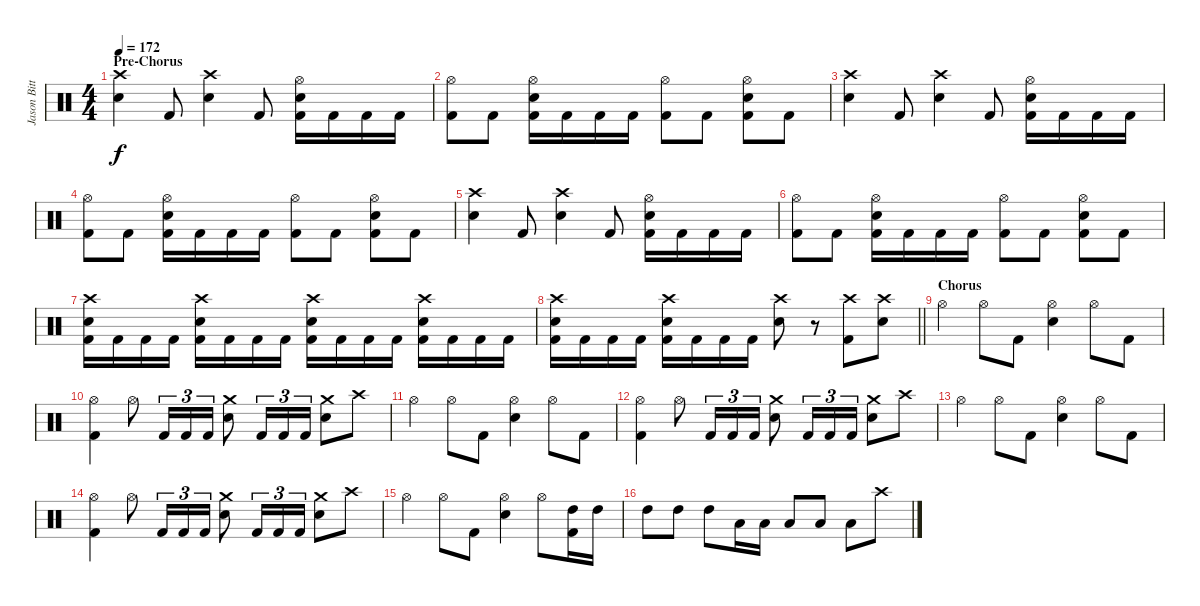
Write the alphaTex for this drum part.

\track ("Jason Bittner" "Jason Bitt") {instrument percussion}
\staff {score}
\articulation defaults
\ts (4 4)
\section ("" "Pre-Chorus")
\tempo 172
\clef neutral
\ks c
("Crash high (hit)" "Electric Snare (hit)").4{dy f} "Kick (hit) 2".8 ("Crash high (hit)" "Electric Snare (hit)").4 "Kick (hit) 2".8 ("Hi-Hat (open)" "Electric Snare (hit)" "Kick (hit) 2").16 "Kick (hit) 2".16 "Kick (hit) 2".16 "Kick (hit) 2".16 |
("Hi-Hat (open)" "Kick (hit) 2").8 "Kick (hit) 2".8 ("Hi-Hat (open)" "Electric Snare (hit)" "Kick (hit) 2").16 "Kick (hit) 2".16 "Kick (hit) 2".16 "Kick (hit) 2".16 ("Hi-Hat (open)" "Kick (hit) 2").8 "Kick (hit) 2".8 ("Hi-Hat (open)" "Electric Snare (hit)" "Kick (hit) 2").8 "Kick (hit) 2".8 |
("Crash high (hit)" "Electric Snare (hit)").4 "Kick (hit) 2".8 ("Crash high (hit)" "Electric Snare (hit)").4 "Kick (hit) 2".8 ("Hi-Hat (open)" "Electric Snare (hit)" "Kick (hit) 2").16 "Kick (hit) 2".16 "Kick (hit) 2".16 "Kick (hit) 2".16 |
("Hi-Hat (open)" "Kick (hit) 2").8 "Kick (hit) 2".8 ("Hi-Hat (open)" "Electric Snare (hit)" "Kick (hit) 2").16 "Kick (hit) 2".16 "Kick (hit) 2".16 "Kick (hit) 2".16 ("Hi-Hat (open)" "Kick (hit) 2").8 "Kick (hit) 2".8 ("Hi-Hat (open)" "Electric Snare (hit)" "Kick (hit) 2").8 "Kick (hit) 2".8 |
("Crash high (hit)" "Electric Snare (hit)").4 "Kick (hit) 2".8 ("Crash high (hit)" "Electric Snare (hit)").4 "Kick (hit) 2".8 ("Hi-Hat (open)" "Electric Snare (hit)" "Kick (hit) 2").16 "Kick (hit) 2".16 "Kick (hit) 2".16 "Kick (hit) 2".16 |
("Hi-Hat (open)" "Kick (hit) 2").8 "Kick (hit) 2".8 ("Hi-Hat (open)" "Electric Snare (hit)" "Kick (hit) 2").16 "Kick (hit) 2".16 "Kick (hit) 2".16 "Kick (hit) 2".16 ("Hi-Hat (open)" "Kick (hit) 2").8 "Kick (hit) 2".8 ("Hi-Hat (open)" "Electric Snare (hit)" "Kick (hit) 2").8 "Kick (hit) 2".8 |
("Crash high (hit)" "Electric Snare (hit)" "Kick (hit) 2").16 "Kick (hit) 2".16 "Kick (hit) 2".16 "Kick (hit) 2".16 ("Crash high (hit)" "Electric Snare (hit)" "Kick (hit) 2").16 "Kick (hit) 2".16 "Kick (hit) 2".16 "Kick (hit) 2".16 ("Crash high (hit)" "Electric Snare (hit)" "Kick (hit) 2").16 "Kick (hit) 2".16 "Kick (hit) 2".16 "Kick (hit) 2".16 ("Crash high (hit)" "Electric Snare (hit)" "Kick (hit) 2").16 "Kick (hit) 2".16 "Kick (hit) 2".16 "Kick (hit) 2".16 |
\barLineRight lightlight
("Crash high (hit)" "Electric Snare (hit)" "Kick (hit) 2").16 "Kick (hit) 2".16 "Kick (hit) 2".16 "Kick (hit) 2".16 ("Crash high (hit)" "Electric Snare (hit)" "Kick (hit) 2").16 "Kick (hit) 2".16 "Kick (hit) 2".16 "Kick (hit) 2".16 ("Crash high (hit)" "Electric Snare (hit)").8 r.8{volume 0} ("Crash high (hit)" "Kick (hit) 2").8{volume 13} ("Crash high (hit)" "Electric Snare (hit)").8 |
\section ("" "Chorus")
"Hi-Hat (open)".4 "Hi-Hat (open)".8 "Kick (hit) 2".8 ("Hi-Hat (open)" "Electric Snare (hit)").4 "Hi-Hat (open)".8 "Kick (hit) 2".8 |
("Hi-Hat (open)" "Kick (hit) 2").4 "Hi-Hat (open)".8 "Kick (hit) 2".16{tu (3 2)} "Kick (hit) 2".16{tu (3 2)} "Kick (hit) 2".16{tu (3 2)} ("Crash medium (hit)" "Electric Snare (hit)").8 "Kick (hit) 2".16{tu (3 2)} "Kick (hit) 2".16{tu (3 2)} "Kick (hit) 2".16{tu (3 2)} ("Crash medium (hit)" "Electric Snare (hit)").8 "Crash high (hit)".8 |
"Hi-Hat (open)".4 "Hi-Hat (open)".8 "Kick (hit) 2".8 ("Hi-Hat (open)" "Electric Snare (hit)").4 "Hi-Hat (open)".8 "Kick (hit) 2".8 |
("Hi-Hat (open)" "Kick (hit) 2").4 "Hi-Hat (open)".8 "Kick (hit) 2".16{tu (3 2)} "Kick (hit) 2".16{tu (3 2)} "Kick (hit) 2".16{tu (3 2)} ("Crash medium (hit)" "Electric Snare (hit)").8 "Kick (hit) 2".16{tu (3 2)} "Kick (hit) 2".16{tu (3 2)} "Kick (hit) 2".16{tu (3 2)} ("Crash medium (hit)" "Electric Snare (hit)").8 "Crash high (hit)".8 |
"Hi-Hat (open)".4 "Hi-Hat (open)".8 "Kick (hit) 2".8 ("Hi-Hat (open)" "Electric Snare (hit)").4 "Hi-Hat (open)".8 "Kick (hit) 2".8 |
("Hi-Hat (open)" "Kick (hit) 2").4 "Hi-Hat (open)".8 "Kick (hit) 2".16{tu (3 2)} "Kick (hit) 2".16{tu (3 2)} "Kick (hit) 2".16{tu (3 2)} ("Crash medium (hit)" "Electric Snare (hit)").8 "Kick (hit) 2".16{tu (3 2)} "Kick (hit) 2".16{tu (3 2)} "Kick (hit) 2".16{tu (3 2)} ("Crash medium (hit)" "Electric Snare (hit)").8 "Crash high (hit)".8 |
"Hi-Hat (open)".4 "Hi-Hat (open)".8 "Kick (hit) 2".8 ("Hi-Hat (open)" "Electric Snare (hit)").4 "Hi-Hat (open)".8 ("High Tom (hit)" "Kick (hit) 2").16 "High Tom (hit)".16 |
"High Tom (hit)".8 "High Tom (hit)".8 "High Tom (hit)".8 "Low Tom (hit)".16 "Low Tom (hit)".16 "Low Tom (hit)".8 "Low Tom (hit)".8 "Low Tom (hit)".8 "Crash high (hit)".8
